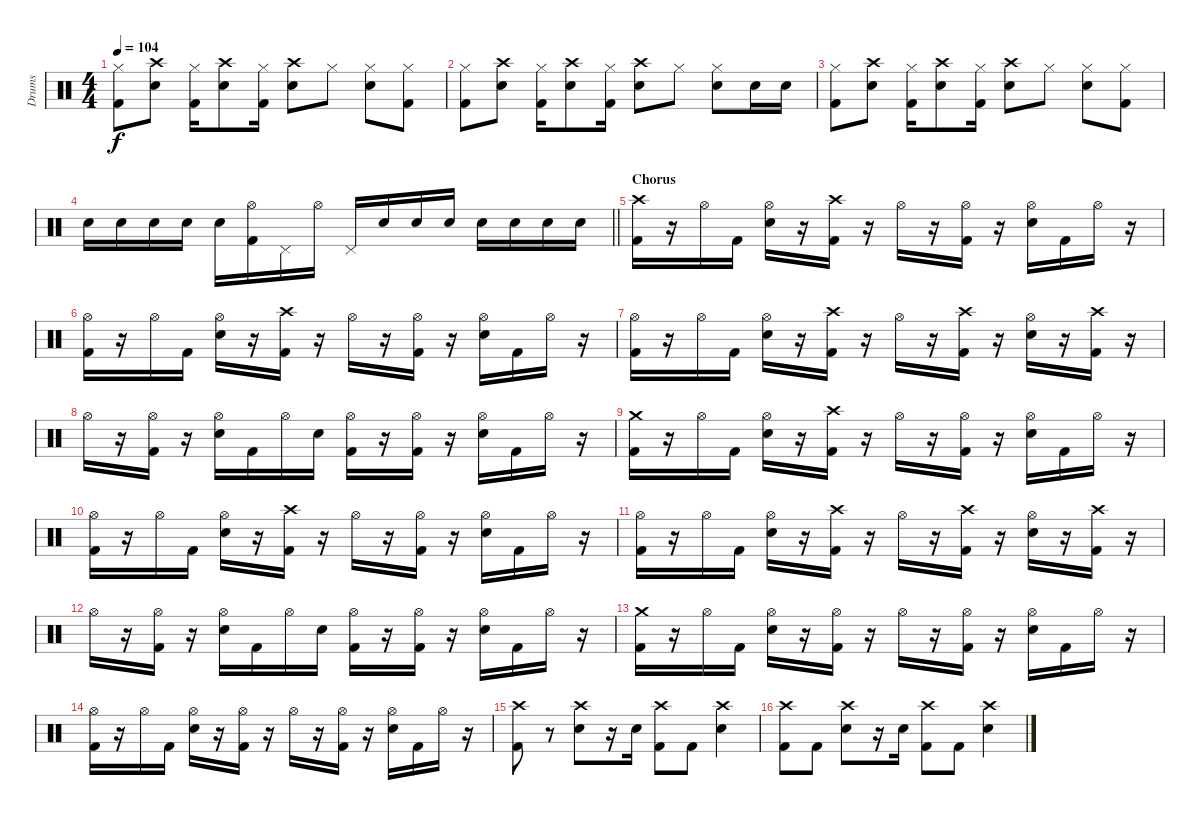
\track ("Drums" "Drums") {instrument percussion}
\staff {score}
\articulation defaults
\ts (4 4)
\tempo 104
\clef neutral
\ks c
("Hi-Hat (closed)" "Kick (hit) 2").8{dy f} ("Crash high (hit)" "Snare (hit) 2").8 ("Hi-Hat (closed)" "Kick (hit) 2").16 ("Crash high (hit)" "Snare (hit) 2").8 ("Hi-Hat (closed)" "Kick (hit) 2").16 ("Crash high (hit)" "Snare (hit) 2").8 "Hi-Hat (closed)".8 ("Hi-Hat (closed)" "Snare (hit) 2").8 ("Hi-Hat (closed)" "Kick (hit) 2").8 |
("Hi-Hat (closed)" "Kick (hit) 2").8 ("Crash high (hit)" "Snare (hit) 2").8 ("Hi-Hat (closed)" "Kick (hit) 2").16 ("Crash high (hit)" "Snare (hit) 2").8 ("Hi-Hat (closed)" "Kick (hit) 2").16 ("Crash high (hit)" "Snare (hit) 2").8 "Hi-Hat (closed)".8 ("Hi-Hat (closed)" "Snare (hit) 2").8 "Snare (hit) 2".16 "Snare (hit) 2".16 |
("Hi-Hat (closed)" "Kick (hit) 2").8 ("Crash high (hit)" "Snare (hit) 2").8 ("Hi-Hat (closed)" "Kick (hit) 2").16 ("Crash high (hit)" "Snare (hit) 2").8 ("Hi-Hat (closed)" "Kick (hit) 2").16 ("Crash high (hit)" "Snare (hit) 2").8 "Hi-Hat (closed)".8 ("Hi-Hat (closed)" "Snare (hit) 2").8 ("Hi-Hat (closed)" "Kick (hit) 2").8 |
\barLineRight lightlight "Snare (hit) 2".16 "Snare (hit) 2".16 "Snare (hit) 2".16 "Snare (hit) 2".16 "Snare (hit) 2".16
("Hi-Hat (open)" "Kick (hit) 2").16 "Pedal Hi-Hat (hit)".16 "Hi-Hat (open)".16 "Pedal Hi-Hat (hit)".16 "Snare (hit) 2".16 "Snare (hit) 2".16 "Snare (hit) 2".16 "Snare (hit) 2".16 "Snare (hit) 2".16 "Snare (hit) 2".16 "Snare (hit) 2".16 |
\section ("" "Chorus")
("Crash high (hit)" "Kick (hit) 2").16 r.16 "Hi-Hat (open)".16 "Kick (hit) 2".16 ("Hi-Hat (open)" "Snare (hit) 2").16 r.16 ("Crash high (hit)" "Kick (hit) 2").16 r.16 "Hi-Hat (open)".16 r.16 ("Hi-Hat (open)" "Kick (hit) 2").16 r.16 ("Hi-Hat (open)" "Snare (hit) 2").16 "Kick (hit) 2".16 "Hi-Hat (open)".16 r.16 |
("Hi-Hat (open)" "Kick (hit) 2").16 r.16 "Hi-Hat (open)".16 "Kick (hit) 2".16 ("Hi-Hat (open)" "Snare (hit) 2").16 r.16 ("Crash high (hit)" "Kick (hit) 2").16 r.16 "Hi-Hat (open)".16 r.16 ("Hi-Hat (open)" "Kick (hit) 2").16 r.16 ("Hi-Hat (open)" "Snare (hit) 2").16 "Kick (hit) 2".16 "Hi-Hat (open)".16 r.16 |
("Hi-Hat (open)" "Kick (hit) 2").16 r.16 "Hi-Hat (open)".16 "Kick (hit) 2".16 ("Hi-Hat (open)" "Snare (hit) 2").16 r.16 ("Crash high (hit)" "Kick (hit) 2").16 r.16 "Hi-Hat (open)".16 r.16 ("Crash high (hit)" "Kick (hit) 2").16 r.16 ("Hi-Hat (open)" "Snare (hit) 2").16 r.16 ("Crash high (hit)" "Kick (hit) 2").16 r.16 |
"Hi-Hat (open)".16 r.16 ("Hi-Hat (open)" "Kick (hit) 2").16 r.16 ("Hi-Hat (open)" "Snare (hit) 2").16 "Kick (hit) 2".16 "Hi-Hat (open)".16 "Snare (hit) 2".16 ("Hi-Hat (open)" "Kick (hit) 2").16 r.16 ("Hi-Hat (open)" "Kick (hit) 2").16 r.16 ("Hi-Hat (open)" "Snare (hit) 2").16 "Kick (hit) 2".16 "Hi-Hat (open)".16 r.16 |
("Crash medium (hit)" "Kick (hit) 2").16 r.16 "Hi-Hat (open)".16 "Kick (hit) 2".16 ("Hi-Hat (open)" "Snare (hit) 2").16 r.16 ("Crash high (hit)" "Kick (hit) 2").16 r.16 "Hi-Hat (open)".16 r.16 ("Hi-Hat (open)" "Kick (hit) 2").16 r.16 ("Hi-Hat (open)" "Snare (hit) 2").16 "Kick (hit) 2".16 "Hi-Hat (open)".16 r.16 |
("Hi-Hat (open)" "Kick (hit) 2").16 r.16 "Hi-Hat (open)".16 "Kick (hit) 2".16 ("Hi-Hat (open)" "Snare (hit) 2").16 r.16 ("Crash high (hit)" "Kick (hit) 2").16 r.16 "Hi-Hat (open)".16 r.16 ("Hi-Hat (open)" "Kick (hit) 2").16 r.16 ("Hi-Hat (open)" "Snare (hit) 2").16 "Kick (hit) 2".16 "Hi-Hat (open)".16 r.16 |
("Hi-Hat (open)" "Kick (hit) 2").16 r.16 "Hi-Hat (open)".16 "Kick (hit) 2".16 ("Hi-Hat (open)" "Snare (hit) 2").16 r.16 ("Crash high (hit)" "Kick (hit) 2").16 r.16 "Hi-Hat (open)".16 r.16 ("Crash high (hit)" "Kick (hit) 2").16 r.16 ("Hi-Hat (open)" "Snare (hit) 2").16 r.16 ("Crash high (hit)" "Kick (hit) 2").16 r.16 |
"Hi-Hat (open)".16 r.16 ("Hi-Hat (open)" "Kick (hit) 2").16 r.16 ("Hi-Hat (open)" "Snare (hit) 2").16 "Kick (hit) 2".16 "Hi-Hat (open)".16 "Snare (hit) 2".16 ("Hi-Hat (open)" "Kick (hit) 2").16 r.16 ("Hi-Hat (open)" "Kick (hit) 2").16 r.16 ("Hi-Hat (open)" "Snare (hit) 2").16 "Kick (hit) 2".16 "Hi-Hat (open)".16 r.16 |
("Crash medium (hit)" "Kick (hit) 2").16 r.16 "Hi-Hat (open)".16 "Kick (hit) 2".16 ("Hi-Hat (open)" "Snare (hit) 2").16 r.16 ("Hi-Hat (open)" "Kick (hit) 2").16 r.16 "Hi-Hat (open)".16 r.16 ("Hi-Hat (open)" "Kick (hit) 2").16 r.16 ("Hi-Hat (open)" "Snare (hit) 2").16 "Kick (hit) 2".16 "Hi-Hat (open)".16 r.16 |
("Hi-Hat (open)" "Kick (hit) 2").16 r.16 "Hi-Hat (open)".16 "Kick (hit) 2".16 ("Hi-Hat (open)" "Snare (hit) 2").16 r.16 ("Hi-Hat (open)" "Kick (hit) 2").16 r.16 "Hi-Hat (open)".16 r.16 ("Hi-Hat (open)" "Kick (hit) 2").16 r.16 ("Hi-Hat (open)" "Snare (hit) 2").16 "Kick (hit) 2".16 "Hi-Hat (open)".16 r.16 |
("Crash high (hit)" "Kick (hit) 2").8 r.8 ("Crash high (hit)" "Snare (hit) 2").8 r.16 "Snare (hit) 2".16 ("Crash high (hit)" "Kick (hit) 2").8 "Kick (hit) 2".8 ("Crash high (hit)" "Snare (hit) 2").4 |
("Crash high (hit)" "Kick (hit) 2").8 "Kick (hit) 2".8 ("Crash high (hit)" "Snare (hit) 2").8 r.16 "Snare (hit) 2".16 ("Crash high (hit)" "Kick (hit) 2").8 "Kick (hit) 2".8 ("Crash high (hit)" "Snare (hit) 2").4
